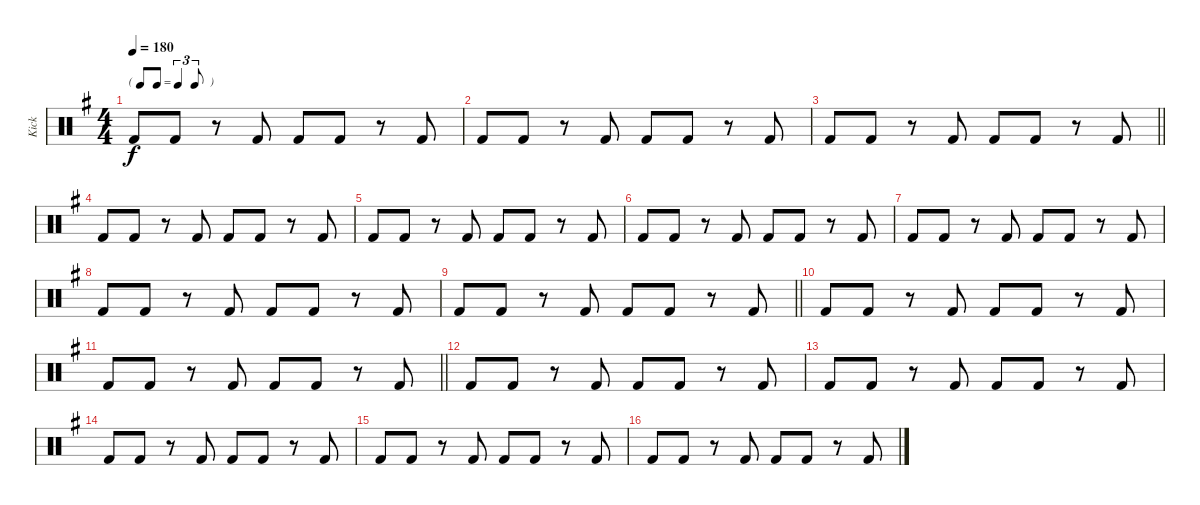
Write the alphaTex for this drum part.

\track ("Kick" "Kick") {instrument percussion}
\staff {score}
\articulation defaults
\ts (4 4)
\tf triplet8th
\tempo 180
\clef neutral
\ks eminor "Kick (hit) 2".8{dy f} "Kick (hit) 2".8
r.8 "Kick (hit) 2".8 "Kick (hit) 2".8 "Kick (hit) 2".8 r.8 "Kick (hit) 2".8 |
"Kick (hit) 2".8 "Kick (hit) 2".8 r.8 "Kick (hit) 2".8 "Kick (hit) 2".8 "Kick (hit) 2".8 r.8 "Kick (hit) 2".8 |
\barLineRight lightlight "Kick (hit) 2".8 "Kick (hit) 2".8
r.8 "Kick (hit) 2".8 "Kick (hit) 2".8 "Kick (hit) 2".8 r.8 "Kick (hit) 2".8 |
"Kick (hit) 2".8 "Kick (hit) 2".8 r.8 "Kick (hit) 2".8 "Kick (hit) 2".8 "Kick (hit) 2".8 r.8 "Kick (hit) 2".8 |
"Kick (hit) 2".8 "Kick (hit) 2".8 r.8 "Kick (hit) 2".8 "Kick (hit) 2".8 "Kick (hit) 2".8 r.8 "Kick (hit) 2".8 |
"Kick (hit) 2".8 "Kick (hit) 2".8 r.8 "Kick (hit) 2".8 "Kick (hit) 2".8 "Kick (hit) 2".8 r.8 "Kick (hit) 2".8 |
"Kick (hit) 2".8 "Kick (hit) 2".8 r.8 "Kick (hit) 2".8 "Kick (hit) 2".8 "Kick (hit) 2".8 r.8 "Kick (hit) 2".8 |
"Kick (hit) 2".8 "Kick (hit) 2".8 r.8 "Kick (hit) 2".8 "Kick (hit) 2".8 "Kick (hit) 2".8 r.8 "Kick (hit) 2".8 |
\barLineRight lightlight "Kick (hit) 2".8 "Kick (hit) 2".8
r.8 "Kick (hit) 2".8 "Kick (hit) 2".8 "Kick (hit) 2".8 r.8 "Kick (hit) 2".8 |
"Kick (hit) 2".8 "Kick (hit) 2".8 r.8 "Kick (hit) 2".8 "Kick (hit) 2".8 "Kick (hit) 2".8 r.8 "Kick (hit) 2".8 |
\barLineRight lightlight "Kick (hit) 2".8 "Kick (hit) 2".8
r.8 "Kick (hit) 2".8 "Kick (hit) 2".8 "Kick (hit) 2".8 r.8 "Kick (hit) 2".8 |
"Kick (hit) 2".8 "Kick (hit) 2".8 r.8 "Kick (hit) 2".8 "Kick (hit) 2".8 "Kick (hit) 2".8 r.8 "Kick (hit) 2".8 |
"Kick (hit) 2".8 "Kick (hit) 2".8 r.8 "Kick (hit) 2".8 "Kick (hit) 2".8 "Kick (hit) 2".8 r.8 "Kick (hit) 2".8 |
"Kick (hit) 2".8 "Kick (hit) 2".8 r.8 "Kick (hit) 2".8 "Kick (hit) 2".8 "Kick (hit) 2".8 r.8 "Kick (hit) 2".8 |
"Kick (hit) 2".8 "Kick (hit) 2".8 r.8 "Kick (hit) 2".8 "Kick (hit) 2".8 "Kick (hit) 2".8 r.8 "Kick (hit) 2".8 |
"Kick (hit) 2".8 "Kick (hit) 2".8 r.8 "Kick (hit) 2".8 "Kick (hit) 2".8 "Kick (hit) 2".8 r.8 "Kick (hit) 2".8
